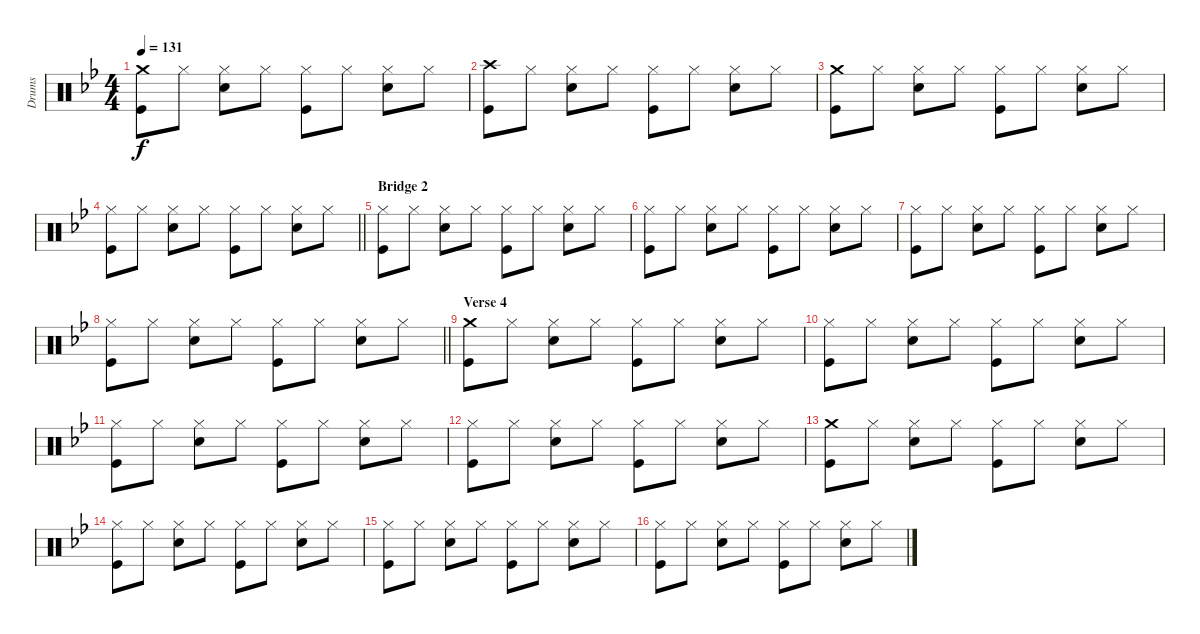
\track ("Drums" "Drums") {instrument percussion}
\staff {score}
\articulation defaults
\ts (4 4)
\tempo 131
\clef neutral
\ks bb
("Crash medium (hit)" "Kick (hit)").8{dy f} "Hi-Hat (closed)".8 ("Hi-Hat (closed)" "Snare (hit) 2").8 "Hi-Hat (closed)".8 ("Hi-Hat (closed)" "Kick (hit)").8 "Hi-Hat (closed)".8 ("Hi-Hat (closed)" "Snare (hit) 2").8 "Hi-Hat (closed)".8 |
("Crash high (hit)" "Kick (hit)").8 "Hi-Hat (closed)".8 ("Hi-Hat (closed)" "Snare (hit) 2").8 "Hi-Hat (closed)".8 ("Hi-Hat (closed)" "Kick (hit)").8 "Hi-Hat (closed)".8 ("Hi-Hat (closed)" "Snare (hit) 2").8 "Hi-Hat (closed)".8 |
("Crash medium (hit)" "Kick (hit)").8 "Hi-Hat (closed)".8 ("Hi-Hat (closed)" "Snare (hit) 2").8 "Hi-Hat (closed)".8 ("Hi-Hat (closed)" "Kick (hit)").8 "Hi-Hat (closed)".8 ("Hi-Hat (closed)" "Snare (hit) 2").8 "Hi-Hat (closed)".8 |
\barLineRight lightlight
("Hi-Hat (closed)" "Kick (hit)").8 "Hi-Hat (closed)".8 ("Hi-Hat (closed)" "Snare (hit) 2").8 "Hi-Hat (closed)".8 ("Hi-Hat (closed)" "Kick (hit)").8 "Hi-Hat (closed)".8 ("Hi-Hat (closed)" "Snare (hit) 2").8 "Hi-Hat (closed)".8 |
\section ("" "Bridge 2")
("Hi-Hat (closed)" "Kick (hit)").8 "Hi-Hat (closed)".8 ("Hi-Hat (closed)" "Snare (hit) 2").8 "Hi-Hat (closed)".8 ("Hi-Hat (closed)" "Kick (hit)").8 "Hi-Hat (closed)".8 ("Hi-Hat (closed)" "Snare (hit) 2").8 "Hi-Hat (closed)".8 |
("Hi-Hat (closed)" "Kick (hit)").8 "Hi-Hat (closed)".8 ("Hi-Hat (closed)" "Snare (hit) 2").8 "Hi-Hat (closed)".8 ("Hi-Hat (closed)" "Kick (hit)").8 "Hi-Hat (closed)".8 ("Hi-Hat (closed)" "Snare (hit) 2").8 "Hi-Hat (closed)".8 |
("Hi-Hat (closed)" "Kick (hit)").8 "Hi-Hat (closed)".8 ("Hi-Hat (closed)" "Snare (hit) 2").8 "Hi-Hat (closed)".8 ("Hi-Hat (closed)" "Kick (hit)").8 "Hi-Hat (closed)".8 ("Hi-Hat (closed)" "Snare (hit) 2").8 "Hi-Hat (closed)".8 |
\barLineRight lightlight
("Hi-Hat (closed)" "Kick (hit)").8 "Hi-Hat (closed)".8 ("Hi-Hat (closed)" "Snare (hit) 2").8 "Hi-Hat (closed)".8 ("Hi-Hat (closed)" "Kick (hit)").8 "Hi-Hat (closed)".8 ("Hi-Hat (closed)" "Snare (hit) 2").8 "Hi-Hat (closed)".8 |
\section ("" "Verse 4")
("Crash medium (hit)" "Kick (hit)").8 "Hi-Hat (closed)".8 ("Hi-Hat (closed)" "Snare (hit) 2").8 "Hi-Hat (closed)".8 ("Hi-Hat (closed)" "Kick (hit)").8 "Hi-Hat (closed)".8 ("Hi-Hat (closed)" "Snare (hit) 2").8 "Hi-Hat (closed)".8 |
("Hi-Hat (closed)" "Kick (hit)").8 "Hi-Hat (closed)".8 ("Hi-Hat (closed)" "Snare (hit) 2").8 "Hi-Hat (closed)".8 ("Hi-Hat (closed)" "Kick (hit)").8 "Hi-Hat (closed)".8 ("Hi-Hat (closed)" "Snare (hit) 2").8 "Hi-Hat (closed)".8 |
("Hi-Hat (closed)" "Kick (hit)").8 "Hi-Hat (closed)".8 ("Hi-Hat (closed)" "Snare (hit) 2").8 "Hi-Hat (closed)".8 ("Hi-Hat (closed)" "Kick (hit)").8 "Hi-Hat (closed)".8 ("Hi-Hat (closed)" "Snare (hit) 2").8 "Hi-Hat (closed)".8 |
("Hi-Hat (closed)" "Kick (hit)").8 "Hi-Hat (closed)".8 ("Hi-Hat (closed)" "Snare (hit) 2").8 "Hi-Hat (closed)".8 ("Hi-Hat (closed)" "Kick (hit)").8 "Hi-Hat (closed)".8 ("Hi-Hat (closed)" "Snare (hit) 2").8 "Hi-Hat (closed)".8 |
("Crash medium (hit)" "Kick (hit)").8 "Hi-Hat (closed)".8 ("Hi-Hat (closed)" "Snare (hit) 2").8 "Hi-Hat (closed)".8 ("Hi-Hat (closed)" "Kick (hit)").8 "Hi-Hat (closed)".8 ("Hi-Hat (closed)" "Snare (hit) 2").8 "Hi-Hat (closed)".8 |
("Hi-Hat (closed)" "Kick (hit)").8 "Hi-Hat (closed)".8 ("Hi-Hat (closed)" "Snare (hit) 2").8 "Hi-Hat (closed)".8 ("Hi-Hat (closed)" "Kick (hit)").8 "Hi-Hat (closed)".8 ("Hi-Hat (closed)" "Snare (hit) 2").8 "Hi-Hat (closed)".8 |
("Hi-Hat (closed)" "Kick (hit)").8 "Hi-Hat (closed)".8 ("Hi-Hat (closed)" "Snare (hit) 2").8 "Hi-Hat (closed)".8 ("Hi-Hat (closed)" "Kick (hit)").8 "Hi-Hat (closed)".8 ("Hi-Hat (closed)" "Snare (hit) 2").8 "Hi-Hat (closed)".8 |
("Hi-Hat (closed)" "Kick (hit)").8 "Hi-Hat (closed)".8 ("Hi-Hat (closed)" "Snare (hit) 2").8 "Hi-Hat (closed)".8 ("Hi-Hat (closed)" "Kick (hit)").8 "Hi-Hat (closed)".8 ("Hi-Hat (closed)" "Snare (hit) 2").8 "Hi-Hat (closed)".8
